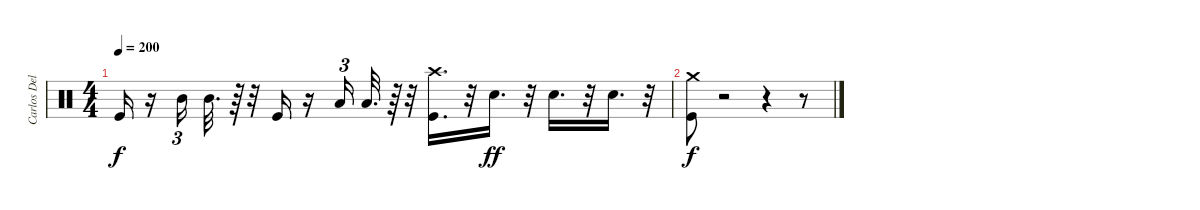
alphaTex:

\track ("Carlos Delgado" "Carlos Del") {instrument percussion}
\staff {score}
\articulation defaults
\ts (4 4)
\tempo 200
\clef neutral
\ks c "Kick (hit)".16{dy f}
r.16 "Mid Tom (hit)".16{tu (3 2)} "Mid Tom (hit)".32{d} r.64 r.32 "Kick (hit)".16 r.16 "Low Tom (hit)".16{tu (3 2)} "Low Tom (hit)".32{d} r.64 r.32 ("Crash high (hit)" "Kick (hit)").16{d} r.32 "Electric Snare (hit)".16{d dy ff} r.32 "Electric Snare (hit)".16{d} r.32 "Electric Snare (hit)".16{d} r.32 |
("Kick (hit)" "Crash medium (hit)").8{dy f} r.2 r.4 r.8
